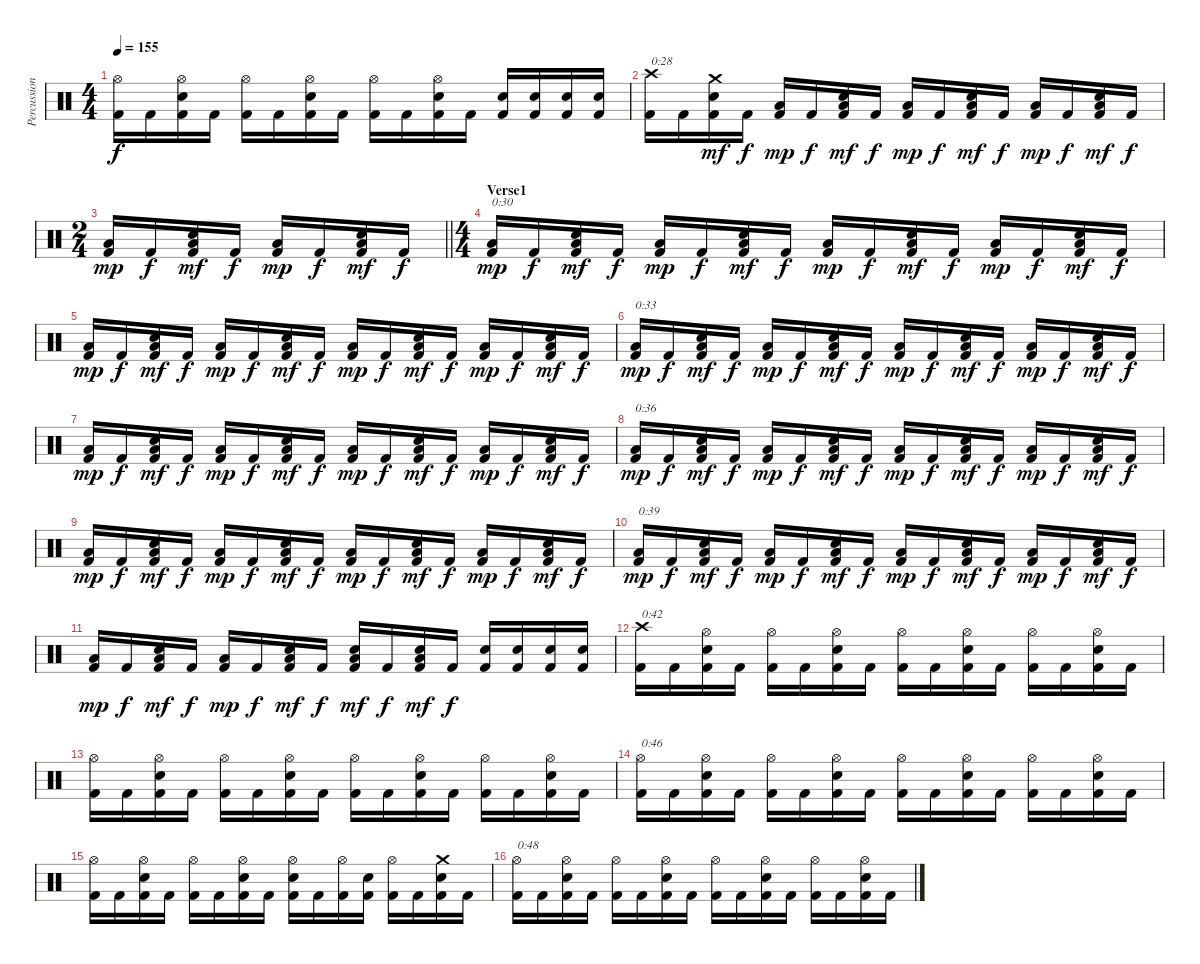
\track ("Percussion" "Percussion") {instrument percussion}
\staff {score}
\articulation defaults
\ts (4 4)
\tempo 155
\clef neutral
\ks c
("Hi-Hat (open)" "Kick (hit) 2").16{dy f} "Kick (hit) 2".16 ("Hi-Hat (open)" "Electric Snare (hit)" "Kick (hit) 2").16 "Kick (hit) 2".16 ("Hi-Hat (open)" "Kick (hit) 2").16 "Kick (hit) 2".16 ("Hi-Hat (open)" "Electric Snare (hit)" "Kick (hit) 2").16 "Kick (hit) 2".16 ("Hi-Hat (open)" "Kick (hit) 2").16 "Kick (hit) 2".16 ("Hi-Hat (open)" "Electric Snare (hit)" "Kick (hit) 2").16 "Kick (hit) 2".16 ("Electric Snare (hit)" "Kick (hit) 2").16 ("Electric Snare (hit)" "Kick (hit) 2").16 ("Electric Snare (hit)" "Kick (hit) 2").16 ("Electric Snare (hit)" "Kick (hit) 2").16 |
("Crash high (hit)" "Kick (hit) 2").16{txt "0:28"} "Kick (hit) 2".16 ("Crash medium (hit)" "Electric Snare (hit)" "Kick (hit) 2").16{dy mf} "Kick (hit) 2".16{dy f} ("Low Floor Tom (hit)" "Kick (hit) 2").16{dy mp} "Kick (hit) 2".16{dy f} ("Low Floor Tom (hit)" "Electric Snare (hit)" "Kick (hit) 2").16{dy mf} "Kick (hit) 2".16{dy f} ("Low Floor Tom (hit)" "Kick (hit) 2").16{dy mp} "Kick (hit) 2".16{dy f} ("Low Floor Tom (hit)" "Electric Snare (hit)" "Kick (hit) 2").16{dy mf} "Kick (hit) 2".16{dy f} ("Low Floor Tom (hit)" "Kick (hit) 2").16{dy mp} "Kick (hit) 2".16{dy f} ("Low Floor Tom (hit)" "Electric Snare (hit)" "Kick (hit) 2").16{dy mf} "Kick (hit) 2".16{dy f} |
\ts (2 4)
\barLineRight lightlight
("Low Floor Tom (hit)" "Kick (hit) 2").16{dy mp} "Kick (hit) 2".16{dy f} ("Low Floor Tom (hit)" "Electric Snare (hit)" "Kick (hit) 2").16{dy mf} "Kick (hit) 2".16{dy f} ("Low Floor Tom (hit)" "Kick (hit) 2").16{dy mp} "Kick (hit) 2".16{dy f} ("Low Floor Tom (hit)" "Electric Snare (hit)" "Kick (hit) 2").16{dy mf} "Kick (hit) 2".16{dy f} |
\ts (4 4)
\section ("" "Verse1")
("Low Floor Tom (hit)" "Kick (hit) 2").16{txt "0:30" dy mp} "Kick (hit) 2".16{dy f} ("Low Floor Tom (hit)" "Electric Snare (hit)" "Kick (hit) 2").16{dy mf} "Kick (hit) 2".16{dy f} ("Low Floor Tom (hit)" "Kick (hit) 2").16{dy mp} "Kick (hit) 2".16{dy f} ("Low Floor Tom (hit)" "Electric Snare (hit)" "Kick (hit) 2").16{dy mf} "Kick (hit) 2".16{dy f} ("Low Floor Tom (hit)" "Kick (hit) 2").16{dy mp} "Kick (hit) 2".16{dy f} ("Low Floor Tom (hit)" "Electric Snare (hit)" "Kick (hit) 2").16{dy mf} "Kick (hit) 2".16{dy f} ("Low Floor Tom (hit)" "Kick (hit) 2").16{dy mp} "Kick (hit) 2".16{dy f} ("Low Floor Tom (hit)" "Electric Snare (hit)" "Kick (hit) 2").16{dy mf} "Kick (hit) 2".16{dy f} |
("Low Floor Tom (hit)" "Kick (hit) 2").16{dy mp} "Kick (hit) 2".16{dy f} ("Low Floor Tom (hit)" "Electric Snare (hit)" "Kick (hit) 2").16{dy mf} "Kick (hit) 2".16{dy f} ("Low Floor Tom (hit)" "Kick (hit) 2").16{dy mp} "Kick (hit) 2".16{dy f} ("Low Floor Tom (hit)" "Electric Snare (hit)" "Kick (hit) 2").16{dy mf} "Kick (hit) 2".16{dy f} ("Low Floor Tom (hit)" "Kick (hit) 2").16{dy mp} "Kick (hit) 2".16{dy f} ("Low Floor Tom (hit)" "Electric Snare (hit)" "Kick (hit) 2").16{dy mf} "Kick (hit) 2".16{dy f} ("Low Floor Tom (hit)" "Kick (hit) 2").16{dy mp} "Kick (hit) 2".16{dy f} ("Low Floor Tom (hit)" "Electric Snare (hit)" "Kick (hit) 2").16{dy mf} "Kick (hit) 2".16{dy f} |
("Low Floor Tom (hit)" "Kick (hit) 2").16{txt "0:33" dy mp} "Kick (hit) 2".16{dy f} ("Low Floor Tom (hit)" "Electric Snare (hit)" "Kick (hit) 2").16{dy mf} "Kick (hit) 2".16{dy f} ("Low Floor Tom (hit)" "Kick (hit) 2").16{dy mp} "Kick (hit) 2".16{dy f} ("Low Floor Tom (hit)" "Electric Snare (hit)" "Kick (hit) 2").16{dy mf} "Kick (hit) 2".16{dy f} ("Low Floor Tom (hit)" "Kick (hit) 2").16{dy mp} "Kick (hit) 2".16{dy f} ("Low Floor Tom (hit)" "Electric Snare (hit)" "Kick (hit) 2").16{dy mf} "Kick (hit) 2".16{dy f} ("Low Floor Tom (hit)" "Kick (hit) 2").16{dy mp} "Kick (hit) 2".16{dy f} ("Low Floor Tom (hit)" "Electric Snare (hit)" "Kick (hit) 2").16{dy mf} "Kick (hit) 2".16{dy f} |
("Low Floor Tom (hit)" "Kick (hit) 2").16{dy mp} "Kick (hit) 2".16{dy f} ("Low Floor Tom (hit)" "Electric Snare (hit)" "Kick (hit) 2").16{dy mf} "Kick (hit) 2".16{dy f} ("Low Floor Tom (hit)" "Kick (hit) 2").16{dy mp} "Kick (hit) 2".16{dy f} ("Low Floor Tom (hit)" "Electric Snare (hit)" "Kick (hit) 2").16{dy mf} "Kick (hit) 2".16{dy f} ("Low Floor Tom (hit)" "Kick (hit) 2").16{dy mp} "Kick (hit) 2".16{dy f} ("Low Floor Tom (hit)" "Electric Snare (hit)" "Kick (hit) 2").16{dy mf} "Kick (hit) 2".16{dy f} ("Low Floor Tom (hit)" "Kick (hit) 2").16{dy mp} "Kick (hit) 2".16{dy f} ("Low Floor Tom (hit)" "Electric Snare (hit)" "Kick (hit) 2").16{dy mf} "Kick (hit) 2".16{dy f} |
("Low Floor Tom (hit)" "Kick (hit) 2").16{txt "0:36" dy mp} "Kick (hit) 2".16{dy f} ("Low Floor Tom (hit)" "Electric Snare (hit)" "Kick (hit) 2").16{dy mf} "Kick (hit) 2".16{dy f} ("Low Floor Tom (hit)" "Kick (hit) 2").16{dy mp} "Kick (hit) 2".16{dy f} ("Low Floor Tom (hit)" "Electric Snare (hit)" "Kick (hit) 2").16{dy mf} "Kick (hit) 2".16{dy f} ("Low Floor Tom (hit)" "Kick (hit) 2").16{dy mp} "Kick (hit) 2".16{dy f} ("Low Floor Tom (hit)" "Electric Snare (hit)" "Kick (hit) 2").16{dy mf} "Kick (hit) 2".16{dy f} ("Low Floor Tom (hit)" "Kick (hit) 2").16{dy mp} "Kick (hit) 2".16{dy f} ("Low Floor Tom (hit)" "Electric Snare (hit)" "Kick (hit) 2").16{dy mf} "Kick (hit) 2".16{dy f} |
("Low Floor Tom (hit)" "Kick (hit) 2").16{dy mp} "Kick (hit) 2".16{dy f} ("Low Floor Tom (hit)" "Electric Snare (hit)" "Kick (hit) 2").16{dy mf} "Kick (hit) 2".16{dy f} ("Low Floor Tom (hit)" "Kick (hit) 2").16{dy mp} "Kick (hit) 2".16{dy f} ("Low Floor Tom (hit)" "Electric Snare (hit)" "Kick (hit) 2").16{dy mf} "Kick (hit) 2".16{dy f} ("Low Floor Tom (hit)" "Kick (hit) 2").16{dy mp} "Kick (hit) 2".16{dy f} ("Low Floor Tom (hit)" "Electric Snare (hit)" "Kick (hit) 2").16{dy mf} "Kick (hit) 2".16{dy f} ("Low Floor Tom (hit)" "Kick (hit) 2").16{dy mp} "Kick (hit) 2".16{dy f} ("Low Floor Tom (hit)" "Electric Snare (hit)" "Kick (hit) 2").16{dy mf} "Kick (hit) 2".16{dy f} |
("Low Floor Tom (hit)" "Kick (hit) 2").16{txt "0:39" dy mp} "Kick (hit) 2".16{dy f} ("Low Floor Tom (hit)" "Electric Snare (hit)" "Kick (hit) 2").16{dy mf} "Kick (hit) 2".16{dy f} ("Low Floor Tom (hit)" "Kick (hit) 2").16{dy mp} "Kick (hit) 2".16{dy f} ("Low Floor Tom (hit)" "Electric Snare (hit)" "Kick (hit) 2").16{dy mf} "Kick (hit) 2".16{dy f} ("Low Floor Tom (hit)" "Kick (hit) 2").16{dy mp} "Kick (hit) 2".16{dy f} ("Low Floor Tom (hit)" "Electric Snare (hit)" "Kick (hit) 2").16{dy mf} "Kick (hit) 2".16{dy f} ("Low Floor Tom (hit)" "Kick (hit) 2").16{dy mp} "Kick (hit) 2".16{dy f} ("Low Floor Tom (hit)" "Electric Snare (hit)" "Kick (hit) 2").16{dy mf} "Kick (hit) 2".16{dy f} |
("Low Floor Tom (hit)" "Kick (hit) 2").16{dy mp} "Kick (hit) 2".16{dy f} ("Low Floor Tom (hit)" "Electric Snare (hit)" "Kick (hit) 2").16{dy mf} "Kick (hit) 2".16{dy f} ("Low Floor Tom (hit)" "Kick (hit) 2").16{dy mp} "Kick (hit) 2".16{dy f} ("Low Floor Tom (hit)" "Electric Snare (hit)" "Kick (hit) 2").16{dy mf} "Kick (hit) 2".16{dy f} ("Low Floor Tom (hit)" "Electric Snare (hit)" "Kick (hit) 2").16{dy mf} "Kick (hit) 2".16{dy f} ("Low Floor Tom (hit)" "Electric Snare (hit)" "Kick (hit) 2").16{dy mf} "Kick (hit) 2".16{dy f} ("Electric Snare (hit)" "Kick (hit) 2").16 ("Electric Snare (hit)" "Kick (hit) 2").16 ("Electric Snare (hit)" "Kick (hit) 2").16 ("Electric Snare (hit)" "Kick (hit) 2").16 |
("Crash high (hit)" "Kick (hit) 2").16{txt "0:42"} "Kick (hit) 2".16 ("Hi-Hat (open)" "Electric Snare (hit)" "Kick (hit) 2").16 "Kick (hit) 2".16 ("Hi-Hat (open)" "Kick (hit) 2").16 "Kick (hit) 2".16 ("Hi-Hat (open)" "Electric Snare (hit)" "Kick (hit) 2").16 "Kick (hit) 2".16 ("Hi-Hat (open)" "Kick (hit) 2").16 "Kick (hit) 2".16 ("Hi-Hat (open)" "Electric Snare (hit)" "Kick (hit) 2").16 "Kick (hit) 2".16 ("Hi-Hat (open)" "Kick (hit) 2").16 "Kick (hit) 2".16 ("Hi-Hat (open)" "Electric Snare (hit)" "Kick (hit) 2").16 "Kick (hit) 2".16 |
("Hi-Hat (open)" "Kick (hit) 2").16 "Kick (hit) 2".16 ("Hi-Hat (open)" "Electric Snare (hit)" "Kick (hit) 2").16 "Kick (hit) 2".16 ("Hi-Hat (open)" "Kick (hit) 2").16 "Kick (hit) 2".16 ("Hi-Hat (open)" "Electric Snare (hit)" "Kick (hit) 2").16 "Kick (hit) 2".16 ("Hi-Hat (open)" "Kick (hit) 2").16 "Kick (hit) 2".16 ("Hi-Hat (open)" "Electric Snare (hit)" "Kick (hit) 2").16 "Kick (hit) 2".16 ("Hi-Hat (open)" "Kick (hit) 2").16 "Kick (hit) 2".16 ("Hi-Hat (open)" "Electric Snare (hit)" "Kick (hit) 2").16 "Kick (hit) 2".16 |
("Hi-Hat (open)" "Kick (hit) 2").16{txt "0:46"} "Kick (hit) 2".16 ("Hi-Hat (open)" "Electric Snare (hit)" "Kick (hit) 2").16 "Kick (hit) 2".16 ("Hi-Hat (open)" "Kick (hit) 2").16 "Kick (hit) 2".16 ("Hi-Hat (open)" "Electric Snare (hit)" "Kick (hit) 2").16 "Kick (hit) 2".16 ("Hi-Hat (open)" "Kick (hit) 2").16 "Kick (hit) 2".16 ("Hi-Hat (open)" "Electric Snare (hit)" "Kick (hit) 2").16 "Kick (hit) 2".16 ("Hi-Hat (open)" "Kick (hit) 2").16 "Kick (hit) 2".16 ("Hi-Hat (open)" "Electric Snare (hit)" "Kick (hit) 2").16 "Kick (hit) 2".16 |
("Hi-Hat (open)" "Kick (hit) 2").16 "Kick (hit) 2".16 ("Hi-Hat (open)" "Electric Snare (hit)" "Kick (hit) 2").16 "Kick (hit) 2".16 ("Hi-Hat (open)" "Kick (hit) 2").16 "Kick (hit) 2".16 ("Hi-Hat (open)" "Electric Snare (hit)" "Kick (hit) 2").16 "Kick (hit) 2".16 ("Hi-Hat (open)" "Electric Snare (hit)" "Kick (hit) 2").16 "Kick (hit) 2".16 ("Hi-Hat (open)" "Kick (hit) 2").16 ("Electric Snare (hit)" "Kick (hit) 2").16 ("Hi-Hat (open)" "Kick (hit) 2").16 "Kick (hit) 2".16 ("Crash medium (hit)" "Electric Snare (hit)" "Kick (hit) 2").16 "Kick (hit) 2".16 |
("Hi-Hat (open)" "Kick (hit) 2").16{txt "0:48"} "Kick (hit) 2".16 ("Hi-Hat (open)" "Electric Snare (hit)" "Kick (hit) 2").16 "Kick (hit) 2".16 ("Hi-Hat (open)" "Kick (hit) 2").16 "Kick (hit) 2".16 ("Hi-Hat (open)" "Electric Snare (hit)" "Kick (hit) 2").16 "Kick (hit) 2".16 ("Hi-Hat (open)" "Kick (hit) 2").16 "Kick (hit) 2".16 ("Hi-Hat (open)" "Electric Snare (hit)" "Kick (hit) 2").16 "Kick (hit) 2".16 ("Hi-Hat (open)" "Kick (hit) 2").16 "Kick (hit) 2".16 ("Hi-Hat (open)" "Electric Snare (hit)" "Kick (hit) 2").16 "Kick (hit) 2".16
